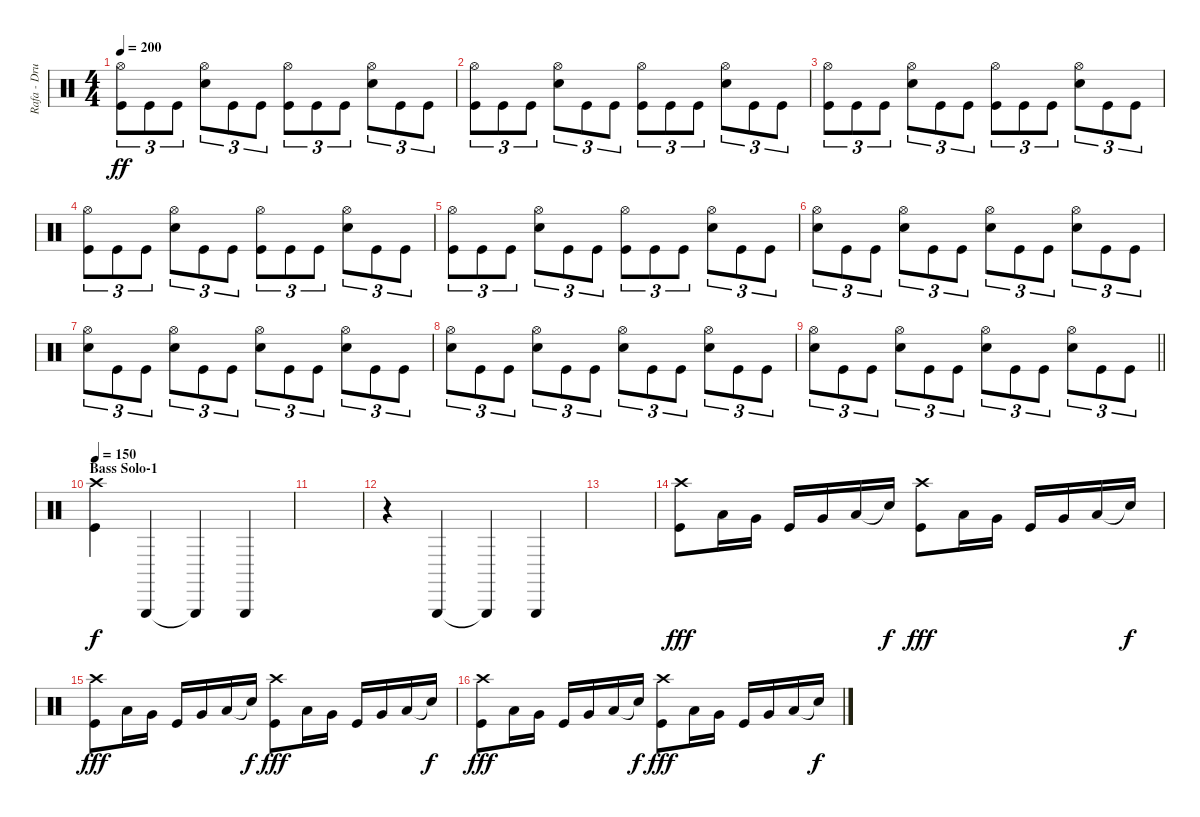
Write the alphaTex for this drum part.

\track ("Rafa - Drums" "Rafa - Dru") {instrument percussion}
\staff {score}
\articulation defaults
\ts (4 4)
\tempo 200
\clef neutral
\ks c
("Hi-Hat (open)" "Kick (hit)").8{tu (3 2) dy ff} "Kick (hit)".8{tu (3 2)} "Kick (hit)".8{tu (3 2)} ("Hi-Hat (open)" "Electric Snare (hit)").8{tu (3 2)} "Kick (hit)".8{tu (3 2)} "Kick (hit)".8{tu (3 2)} ("Hi-Hat (open)" "Kick (hit)").8{tu (3 2)} "Kick (hit)".8{tu (3 2)} "Kick (hit)".8{tu (3 2)} ("Hi-Hat (open)" "Electric Snare (hit)").8{tu (3 2)} "Kick (hit)".8{tu (3 2)} "Kick (hit)".8{tu (3 2)} |
("Hi-Hat (open)" "Kick (hit)").8{tu (3 2)} "Kick (hit)".8{tu (3 2)} "Kick (hit)".8{tu (3 2)} ("Hi-Hat (open)" "Electric Snare (hit)").8{tu (3 2)} "Kick (hit)".8{tu (3 2)} "Kick (hit)".8{tu (3 2)} ("Hi-Hat (open)" "Kick (hit)").8{tu (3 2)} "Kick (hit)".8{tu (3 2)} "Kick (hit)".8{tu (3 2)} ("Hi-Hat (open)" "Electric Snare (hit)").8{tu (3 2)} "Kick (hit)".8{tu (3 2)} "Kick (hit)".8{tu (3 2)} |
("Hi-Hat (open)" "Kick (hit)").8{tu (3 2)} "Kick (hit)".8{tu (3 2)} "Kick (hit)".8{tu (3 2)} ("Hi-Hat (open)" "Electric Snare (hit)").8{tu (3 2)} "Kick (hit)".8{tu (3 2)} "Kick (hit)".8{tu (3 2)} ("Hi-Hat (open)" "Kick (hit)").8{tu (3 2)} "Kick (hit)".8{tu (3 2)} "Kick (hit)".8{tu (3 2)} ("Hi-Hat (open)" "Electric Snare (hit)").8{tu (3 2)} "Kick (hit)".8{tu (3 2)} "Kick (hit)".8{tu (3 2)} |
("Hi-Hat (open)" "Kick (hit)").8{tu (3 2)} "Kick (hit)".8{tu (3 2)} "Kick (hit)".8{tu (3 2)} ("Hi-Hat (open)" "Electric Snare (hit)").8{tu (3 2)} "Kick (hit)".8{tu (3 2)} "Kick (hit)".8{tu (3 2)} ("Hi-Hat (open)" "Kick (hit)").8{tu (3 2)} "Kick (hit)".8{tu (3 2)} "Kick (hit)".8{tu (3 2)} ("Hi-Hat (open)" "Electric Snare (hit)").8{tu (3 2)} "Kick (hit)".8{tu (3 2)} "Kick (hit)".8{tu (3 2)} |
("Hi-Hat (open)" "Kick (hit)").8{tu (3 2)} "Kick (hit)".8{tu (3 2)} "Kick (hit)".8{tu (3 2)} ("Hi-Hat (open)" "Electric Snare (hit)").8{tu (3 2)} "Kick (hit)".8{tu (3 2)} "Kick (hit)".8{tu (3 2)} ("Hi-Hat (open)" "Kick (hit)").8{tu (3 2)} "Kick (hit)".8{tu (3 2)} "Kick (hit)".8{tu (3 2)} ("Hi-Hat (open)" "Electric Snare (hit)").8{tu (3 2)} "Kick (hit)".8{tu (3 2)} "Kick (hit)".8{tu (3 2)} |
("Hi-Hat (open)" "Electric Snare (hit)").8{tu (3 2)} "Kick (hit)".8{tu (3 2)} "Kick (hit)".8{tu (3 2)} ("Hi-Hat (open)" "Electric Snare (hit)").8{tu (3 2)} "Kick (hit)".8{tu (3 2)} "Kick (hit)".8{tu (3 2)} ("Hi-Hat (open)" "Electric Snare (hit)").8{tu (3 2)} "Kick (hit)".8{tu (3 2)} "Kick (hit)".8{tu (3 2)} ("Hi-Hat (open)" "Electric Snare (hit)").8{tu (3 2)} "Kick (hit)".8{tu (3 2)} "Kick (hit)".8{tu (3 2)} |
("Hi-Hat (open)" "Electric Snare (hit)").8{tu (3 2)} "Kick (hit)".8{tu (3 2)} "Kick (hit)".8{tu (3 2)} ("Hi-Hat (open)" "Electric Snare (hit)").8{tu (3 2)} "Kick (hit)".8{tu (3 2)} "Kick (hit)".8{tu (3 2)} ("Hi-Hat (open)" "Electric Snare (hit)").8{tu (3 2)} "Kick (hit)".8{tu (3 2)} "Kick (hit)".8{tu (3 2)} ("Hi-Hat (open)" "Electric Snare (hit)").8{tu (3 2)} "Kick (hit)".8{tu (3 2)} "Kick (hit)".8{tu (3 2)} |
("Hi-Hat (open)" "Electric Snare (hit)").8{tu (3 2)} "Kick (hit)".8{tu (3 2)} "Kick (hit)".8{tu (3 2)} ("Hi-Hat (open)" "Electric Snare (hit)").8{tu (3 2)} "Kick (hit)".8{tu (3 2)} "Kick (hit)".8{tu (3 2)} ("Hi-Hat (open)" "Electric Snare (hit)").8{tu (3 2)} "Kick (hit)".8{tu (3 2)} "Kick (hit)".8{tu (3 2)} ("Hi-Hat (open)" "Electric Snare (hit)").8{tu (3 2)} "Kick (hit)".8{tu (3 2)} "Kick (hit)".8{tu (3 2)} |
\barLineRight lightlight
("Hi-Hat (open)" "Electric Snare (hit)").8{tu (3 2)} "Kick (hit)".8{tu (3 2)} "Kick (hit)".8{tu (3 2)} ("Hi-Hat (open)" "Electric Snare (hit)").8{tu (3 2)} "Kick (hit)".8{tu (3 2)} "Kick (hit)".8{tu (3 2)} ("Hi-Hat (open)" "Electric Snare (hit)").8{tu (3 2)} "Kick (hit)".8{tu (3 2)} "Kick (hit)".8{tu (3 2)} ("Hi-Hat (open)" "Electric Snare (hit)").8{tu (3 2)} "Kick (hit)".8{tu (3 2)} "Kick (hit)".8{tu (3 2)} |
\section ("" "Bass Solo-1")
\tempo 150
("Crash high (hit)" "Kick (hit)").4{dy f} "Triangle (hit)".4 "Triangle (hit)"{t}.4 "Triangle (hit)".4 |
|
r.4 "Triangle (hit)".4 "Triangle (hit)"{t}.4 "Triangle (hit)".4 |
|
("Crash high (hit)" "Kick (hit)").8{dy fff} "Low Floor Tom (hit)".16 "Very Low Tom (hit)".16 "Kick (hit)".16 "Very Low Tom (hit)".16 "Low Floor Tom (hit)".16 "Snare (hit)"{t}.16{dy f} ("Crash high (hit)" "Kick (hit)").8{dy fff} "Low Floor Tom (hit)".16 "Very Low Tom (hit)".16 "Kick (hit)".16 "Very Low Tom (hit)".16 "Low Floor Tom (hit)".16 "Snare (hit)"{t}.16{dy f} |
("Crash high (hit)" "Kick (hit)").8{dy fff} "Low Floor Tom (hit)".16 "Very Low Tom (hit)".16 "Kick (hit)".16 "Very Low Tom (hit)".16 "Low Floor Tom (hit)".16 "Snare (hit)"{t}.16{dy f} ("Crash high (hit)" "Kick (hit)").8{dy fff} "Low Floor Tom (hit)".16 "Very Low Tom (hit)".16 "Kick (hit)".16 "Very Low Tom (hit)".16 "Low Floor Tom (hit)".16 "Snare (hit)"{t}.16{dy f} |
("Crash high (hit)" "Kick (hit)").8{dy fff} "Low Floor Tom (hit)".16 "Very Low Tom (hit)".16 "Kick (hit)".16 "Very Low Tom (hit)".16 "Low Floor Tom (hit)".16 "Snare (hit)"{t}.16{dy f} ("Crash high (hit)" "Kick (hit)").8{dy fff} "Low Floor Tom (hit)".16 "Very Low Tom (hit)".16 "Kick (hit)".16 "Very Low Tom (hit)".16 "Low Floor Tom (hit)".16 "Snare (hit)"{t}.16{dy f}
